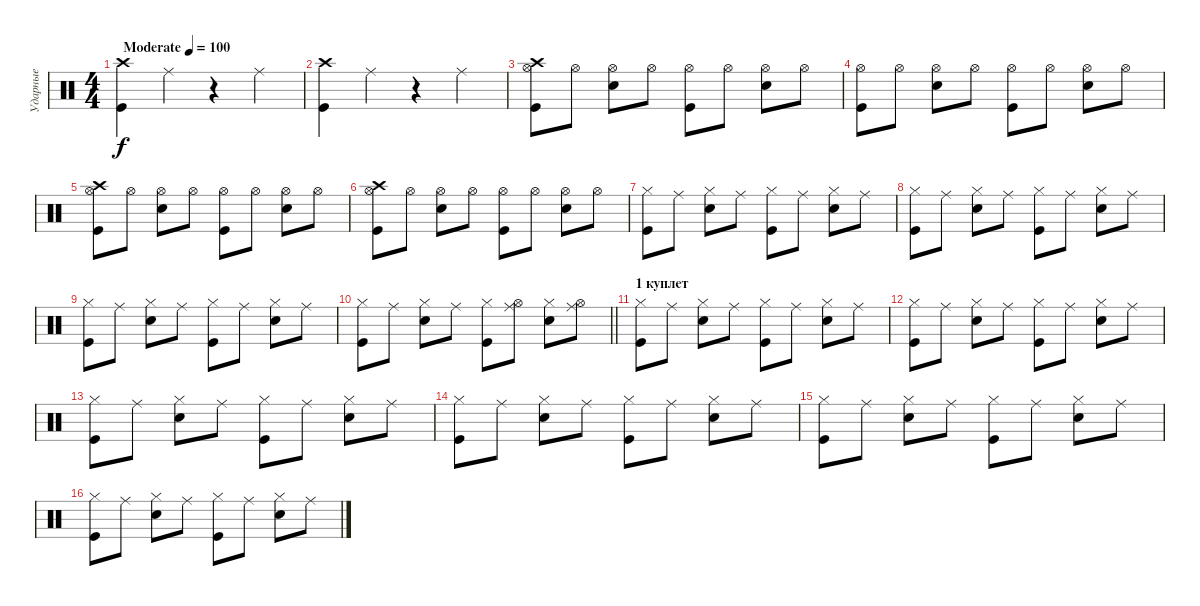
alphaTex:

\track ("Ударные" "Ударные") {instrument percussion}
\staff {score}
\articulation defaults
\ts (4 4)
\tempo (100 "Moderate")
\clef neutral
\ks c
("Crash high (hit)" "Kick (hit)").4{dy f} "Ride (middle)".4 r.4 "Ride (middle)".4 |
("Crash high (hit)" "Kick (hit)").4 "Ride (middle)".4 r.4 "Ride (middle)".4 |
("Hi-Hat (open)" "Kick (hit)" "Crash high (hit)").8 "Hi-Hat (open)".8 ("Hi-Hat (open)" "Snare (hit) 2").8 "Hi-Hat (open)".8 ("Hi-Hat (open)" "Kick (hit)").8 "Hi-Hat (open)".8 ("Hi-Hat (open)" "Snare (hit) 2").8 "Hi-Hat (open)".8 |
("Hi-Hat (open)" "Kick (hit)").8 "Hi-Hat (open)".8 ("Hi-Hat (open)" "Snare (hit) 2").8 "Hi-Hat (open)".8 ("Hi-Hat (open)" "Kick (hit)").8 "Hi-Hat (open)".8 ("Hi-Hat (open)" "Snare (hit) 2").8 "Hi-Hat (open)".8 |
("Hi-Hat (open)" "Kick (hit)" "Crash high (hit)").8 "Hi-Hat (open)".8 ("Hi-Hat (open)" "Snare (hit) 2").8 "Hi-Hat (open)".8 ("Hi-Hat (open)" "Kick (hit)").8 "Hi-Hat (open)".8 ("Hi-Hat (open)" "Snare (hit) 2").8 "Hi-Hat (open)".8 |
("Hi-Hat (open)" "Kick (hit)" "Crash high (hit)").8 "Hi-Hat (open)".8 ("Hi-Hat (open)" "Snare (hit) 2").8 "Hi-Hat (open)".8 ("Hi-Hat (open)" "Kick (hit)").8 "Hi-Hat (open)".8 ("Hi-Hat (open)" "Snare (hit) 2").8 "Hi-Hat (open)".8 |
("Hi-Hat (closed)" "Kick (hit)").8 "Ride (middle)".8 ("Hi-Hat (closed)" "Snare (hit) 2").8 "Ride (middle)".8 ("Hi-Hat (closed)" "Kick (hit)").8 "Ride (middle)".8 ("Hi-Hat (closed)" "Snare (hit) 2").8 "Ride (middle)".8 |
("Hi-Hat (closed)" "Kick (hit)").8 "Ride (middle)".8 ("Hi-Hat (closed)" "Snare (hit) 2").8 "Ride (middle)".8 ("Hi-Hat (closed)" "Kick (hit)").8 "Ride (middle)".8 ("Hi-Hat (closed)" "Snare (hit) 2").8 "Ride (middle)".8 |
("Hi-Hat (closed)" "Kick (hit)").8 "Ride (middle)".8 ("Hi-Hat (closed)" "Snare (hit) 2").8 "Ride (middle)".8 ("Hi-Hat (closed)" "Kick (hit)").8 "Ride (middle)".8 ("Hi-Hat (closed)" "Snare (hit) 2").8 "Ride (middle)".8 |
\barLineRight lightlight
("Hi-Hat (closed)" "Kick (hit)").8 "Ride (middle)".8 ("Hi-Hat (closed)" "Snare (hit) 2").8 "Ride (middle)".8 ("Hi-Hat (closed)" "Kick (hit)").8 ("Ride (middle)" "Hi-Hat (open)").8 ("Hi-Hat (closed)" "Snare (hit) 2").8 ("Ride (middle)" "Hi-Hat (open)").8 |
\section ("" "1 куплет")
("Hi-Hat (closed)" "Kick (hit)").8 "Ride (middle)".8 ("Hi-Hat (closed)" "Snare (hit) 2").8 "Ride (middle)".8 ("Hi-Hat (closed)" "Kick (hit)").8 "Ride (middle)".8 ("Hi-Hat (closed)" "Snare (hit) 2").8 "Ride (middle)".8 |
("Hi-Hat (closed)" "Kick (hit)").8 "Ride (middle)".8 ("Hi-Hat (closed)" "Snare (hit) 2").8 "Ride (middle)".8 ("Hi-Hat (closed)" "Kick (hit)").8 "Ride (middle)".8 ("Hi-Hat (closed)" "Snare (hit) 2").8 "Ride (middle)".8 |
("Hi-Hat (closed)" "Kick (hit)").8 "Ride (middle)".8 ("Hi-Hat (closed)" "Snare (hit) 2").8 "Ride (middle)".8 ("Hi-Hat (closed)" "Kick (hit)").8 "Ride (middle)".8 ("Hi-Hat (closed)" "Snare (hit) 2").8 "Ride (middle)".8 |
("Hi-Hat (closed)" "Kick (hit)").8 "Ride (middle)".8 ("Hi-Hat (closed)" "Snare (hit) 2").8 "Ride (middle)".8 ("Hi-Hat (closed)" "Kick (hit)").8 "Ride (middle)".8 ("Hi-Hat (closed)" "Snare (hit) 2").8 "Ride (middle)".8 |
("Hi-Hat (closed)" "Kick (hit)").8 "Ride (middle)".8 ("Hi-Hat (closed)" "Snare (hit) 2").8 "Ride (middle)".8 ("Hi-Hat (closed)" "Kick (hit)").8 "Ride (middle)".8 ("Hi-Hat (closed)" "Snare (hit) 2").8 "Ride (middle)".8 |
("Hi-Hat (closed)" "Kick (hit)").8 "Ride (middle)".8 ("Hi-Hat (closed)" "Snare (hit) 2").8 "Ride (middle)".8 ("Hi-Hat (closed)" "Kick (hit)").8 "Ride (middle)".8 ("Hi-Hat (closed)" "Snare (hit) 2").8 "Ride (middle)".8
